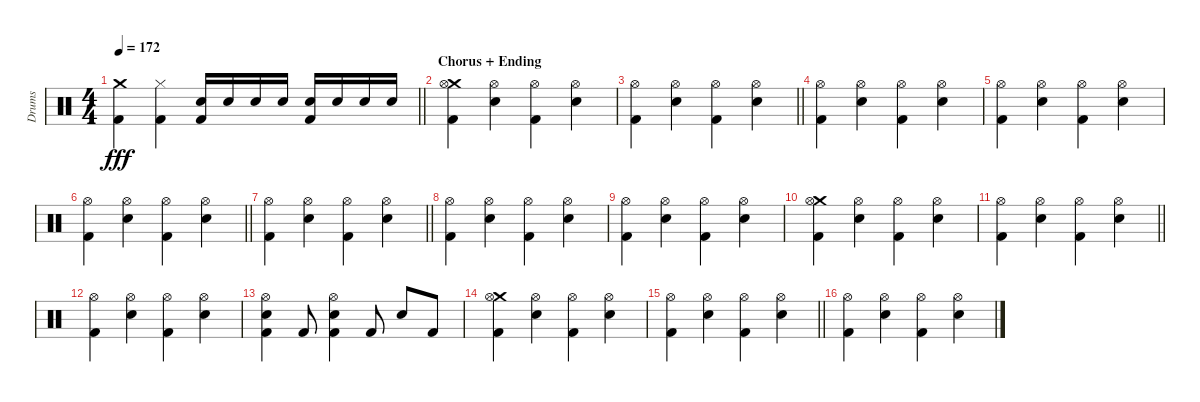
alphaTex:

\track ("Drums" "Drums") {instrument percussion}
\staff {score}
\articulation defaults
\ts (4 4)
\tempo 172
\clef neutral
\barLineRight lightlight
\ks c
("Crash medium (hit)" "Kick (hit) 2").4{dy fff} ("Hi-Hat (closed)" "Kick (hit) 2").4 ("Electric Snare (hit)" "Kick (hit) 2").16 "Electric Snare (hit)".16 "Electric Snare (hit)".16 "Electric Snare (hit)".16 ("Electric Snare (hit)" "Kick (hit) 2").16 "Electric Snare (hit)".16 "Electric Snare (hit)".16 "Electric Snare (hit)".16 |
\section ("" "Chorus + Ending")
("Crash medium (hit)" "Hi-Hat (open)" "Kick (hit) 2").4 ("Hi-Hat (open)" "Electric Snare (hit)").4 ("Hi-Hat (open)" "Kick (hit) 2").4 ("Hi-Hat (open)" "Electric Snare (hit)").4 |
\barLineRight lightlight
("Hi-Hat (open)" "Kick (hit) 2").4 ("Hi-Hat (open)" "Electric Snare (hit)").4 ("Hi-Hat (open)" "Kick (hit) 2").4 ("Hi-Hat (open)" "Electric Snare (hit)").4 |
("Hi-Hat (open)" "Kick (hit) 2").4 ("Hi-Hat (open)" "Electric Snare (hit)").4 ("Hi-Hat (open)" "Kick (hit) 2").4 ("Hi-Hat (open)" "Electric Snare (hit)").4 |
("Hi-Hat (open)" "Kick (hit) 2").4 ("Hi-Hat (open)" "Electric Snare (hit)").4 ("Hi-Hat (open)" "Kick (hit) 2").4 ("Hi-Hat (open)" "Electric Snare (hit)").4 |
\barLineRight lightlight
("Hi-Hat (open)" "Kick (hit) 2").4 ("Hi-Hat (open)" "Electric Snare (hit)").4 ("Hi-Hat (open)" "Kick (hit) 2").4 ("Hi-Hat (open)" "Electric Snare (hit)").4 |
\barLineRight lightlight
("Hi-Hat (open)" "Kick (hit) 2").4 ("Hi-Hat (open)" "Electric Snare (hit)").4 ("Hi-Hat (open)" "Kick (hit) 2").4 ("Hi-Hat (open)" "Electric Snare (hit)").4 |
("Hi-Hat (open)" "Kick (hit) 2").4 ("Hi-Hat (open)" "Electric Snare (hit)").4 ("Hi-Hat (open)" "Kick (hit) 2").4 ("Hi-Hat (open)" "Electric Snare (hit)").4 |
("Hi-Hat (open)" "Kick (hit) 2").4 ("Hi-Hat (open)" "Electric Snare (hit)").4 ("Hi-Hat (open)" "Kick (hit) 2").4 ("Hi-Hat (open)" "Electric Snare (hit)").4 |
("Crash medium (hit)" "Hi-Hat (open)" "Kick (hit) 2").4 ("Hi-Hat (open)" "Electric Snare (hit)").4 ("Hi-Hat (open)" "Kick (hit) 2").4 ("Hi-Hat (open)" "Electric Snare (hit)").4 |
\barLineRight lightlight
("Hi-Hat (open)" "Kick (hit) 2").4 ("Hi-Hat (open)" "Electric Snare (hit)").4 ("Hi-Hat (open)" "Kick (hit) 2").4 ("Hi-Hat (open)" "Electric Snare (hit)").4 |
("Hi-Hat (open)" "Kick (hit) 2").4 ("Hi-Hat (open)" "Electric Snare (hit)").4 ("Hi-Hat (open)" "Kick (hit) 2").4 ("Hi-Hat (open)" "Electric Snare (hit)").4 |
("Hi-Hat (open)" "Electric Snare (hit)" "Kick (hit) 2").4 "Kick (hit) 2".8 ("Hi-Hat (open)" "Electric Snare (hit)" "Kick (hit) 2").4 "Kick (hit) 2".8 "Electric Snare (hit)".8 "Kick (hit) 2".8 |
("Crash medium (hit)" "Hi-Hat (open)" "Kick (hit) 2").4 ("Hi-Hat (open)" "Electric Snare (hit)").4 ("Hi-Hat (open)" "Kick (hit) 2").4 ("Hi-Hat (open)" "Electric Snare (hit)").4 |
\barLineRight lightlight
("Hi-Hat (open)" "Kick (hit) 2").4 ("Hi-Hat (open)" "Electric Snare (hit)").4 ("Hi-Hat (open)" "Kick (hit) 2").4 ("Hi-Hat (open)" "Electric Snare (hit)").4 |
("Hi-Hat (open)" "Kick (hit) 2").4 ("Hi-Hat (open)" "Electric Snare (hit)").4 ("Hi-Hat (open)" "Kick (hit) 2").4 ("Hi-Hat (open)" "Electric Snare (hit)").4
